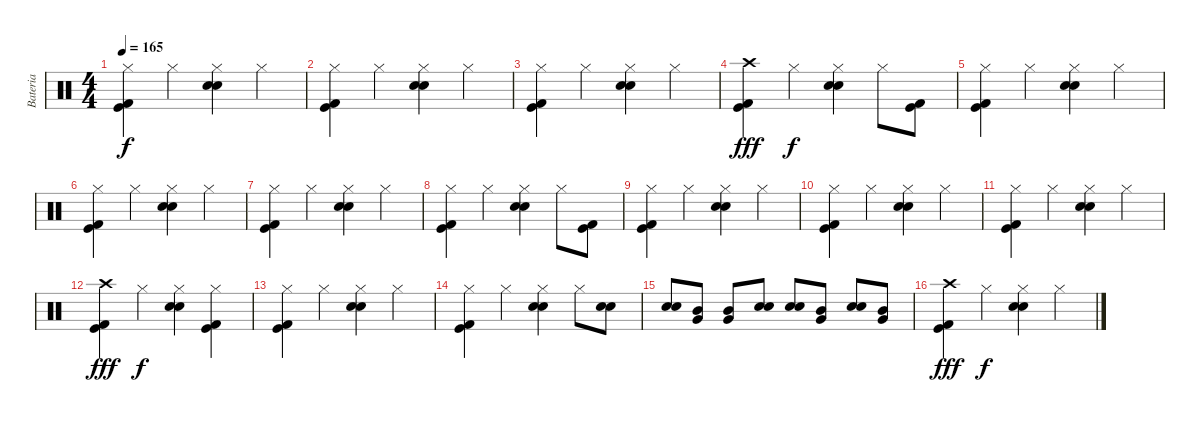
\track ("Bateria" "Bateria") {instrument percussion}
\staff {score}
\articulation defaults
\ts (4 4)
\tempo 165
\clef neutral
\ks c
("Hi-Hat (closed)" "Kick (hit) 2" "Kick (hit)").4{dy f} "Hi-Hat (closed)".4 ("Hi-Hat (closed)" "Electric Snare (hit)" "Snare (hit) 2").4 "Hi-Hat (closed)".4 |
("Hi-Hat (closed)" "Kick (hit) 2" "Kick (hit)").4 "Hi-Hat (closed)".4 ("Hi-Hat (closed)" "Electric Snare (hit)" "Snare (hit) 2").4 "Hi-Hat (closed)".4 |
("Hi-Hat (closed)" "Kick (hit) 2" "Kick (hit)").4 "Hi-Hat (closed)".4 ("Hi-Hat (closed)" "Electric Snare (hit)" "Snare (hit) 2").4 "Hi-Hat (closed)".4 |
("Crash high (hit)" "Kick (hit) 2" "Kick (hit)").4{dy fff} "Hi-Hat (closed)".4{dy f} ("Hi-Hat (closed)" "Electric Snare (hit)" "Snare (hit) 2").4 "Hi-Hat (closed)".8 ("Kick (hit) 2" "Kick (hit)").8 |
("Hi-Hat (closed)" "Kick (hit) 2" "Kick (hit)").4 "Hi-Hat (closed)".4 ("Hi-Hat (closed)" "Electric Snare (hit)" "Snare (hit) 2").4 "Hi-Hat (closed)".4 |
("Hi-Hat (closed)" "Kick (hit) 2" "Kick (hit)").4 "Hi-Hat (closed)".4 ("Hi-Hat (closed)" "Electric Snare (hit)" "Snare (hit) 2").4 "Hi-Hat (closed)".4 |
("Hi-Hat (closed)" "Kick (hit) 2" "Kick (hit)").4 "Hi-Hat (closed)".4 ("Hi-Hat (closed)" "Electric Snare (hit)" "Snare (hit) 2").4 "Hi-Hat (closed)".4 |
("Hi-Hat (closed)" "Kick (hit) 2" "Kick (hit)").4 "Hi-Hat (closed)".4 ("Hi-Hat (closed)" "Electric Snare (hit)" "Snare (hit) 2").4 "Hi-Hat (closed)".8 ("Kick (hit) 2" "Kick (hit)").8 |
("Hi-Hat (closed)" "Kick (hit) 2" "Kick (hit)").4 "Hi-Hat (closed)".4 ("Hi-Hat (closed)" "Electric Snare (hit)" "Snare (hit) 2").4 "Hi-Hat (closed)".4 |
("Hi-Hat (closed)" "Kick (hit) 2" "Kick (hit)").4 "Hi-Hat (closed)".4 ("Hi-Hat (closed)" "Electric Snare (hit)" "Snare (hit) 2").4 "Hi-Hat (closed)".4 |
("Hi-Hat (closed)" "Kick (hit) 2" "Kick (hit)").4 "Hi-Hat (closed)".4 ("Hi-Hat (closed)" "Electric Snare (hit)" "Snare (hit) 2").4 "Hi-Hat (closed)".4 |
("Crash high (hit)" "Kick (hit) 2" "Kick (hit)").4{dy fff} "Hi-Hat (closed)".4{dy f} ("Hi-Hat (closed)" "Electric Snare (hit)" "Snare (hit) 2").4 ("Hi-Hat (closed)" "Kick (hit) 2" "Kick (hit)").4 |
("Hi-Hat (closed)" "Kick (hit) 2" "Kick (hit)").4 "Hi-Hat (closed)".4 ("Hi-Hat (closed)" "Electric Snare (hit)" "Snare (hit) 2").4 "Hi-Hat (closed)".4 |
("Hi-Hat (closed)" "Kick (hit) 2" "Kick (hit)").4 "Hi-Hat (closed)".4 ("Hi-Hat (closed)" "Electric Snare (hit)" "Snare (hit) 2").4 "Hi-Hat (closed)".8 ("Electric Snare (hit)" "Snare (hit) 2").8 |
("Electric Snare (hit)" "Snare (hit) 2").8 ("Mid Tom (hit)" "Very Low Tom (hit)").8 ("Mid Tom (hit)" "Very Low Tom (hit)").8 ("Electric Snare (hit)" "Snare (hit) 2").8 ("Electric Snare (hit)" "Snare (hit) 2").8 ("Mid Tom (hit)" "Very Low Tom (hit)").8 ("Electric Snare (hit)" "Snare (hit) 2").8 ("Mid Tom (hit)" "Very Low Tom (hit)").8 |
("Crash high (hit)" "Kick (hit) 2" "Kick (hit)").4{dy fff} "Hi-Hat (closed)".4{dy f} ("Hi-Hat (closed)" "Electric Snare (hit)" "Snare (hit) 2").4 "Hi-Hat (closed)".4
